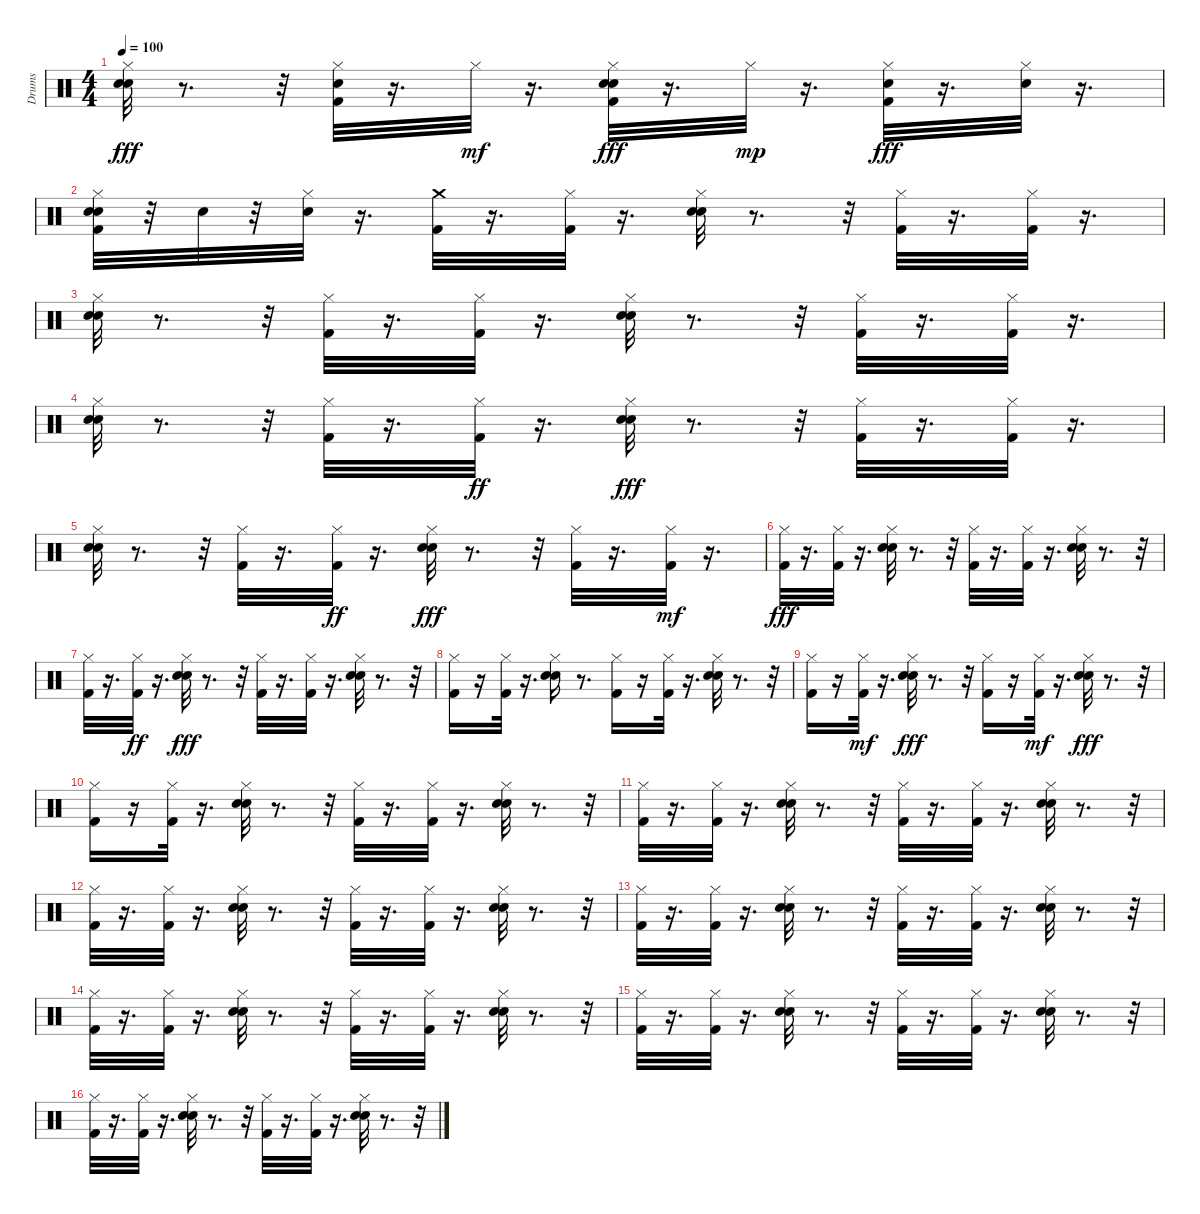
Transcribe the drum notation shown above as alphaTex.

\track ("Drums" "Drums") {instrument percussion}
\staff {score}
\articulation defaults
\ts (4 4)
\tempo 100
\clef neutral
\ks c
("Snare (hit) 2" "Hi-Hat (closed)" "Hand Clap (hit)").32{dy fff} r.8{d} r.32 ("Hi-Hat (closed)" "Snare (hit) 2" "Kick (hit) 2").32 r.16{d} "Hi-Hat (closed)".32{dy mf} r.16{d} ("Hi-Hat (closed)" "Hand Clap (hit)" "Kick (hit) 2" "Snare (hit) 2").32{dy fff} r.16{d} "Hi-Hat (closed)".32{dy mp} r.16{d} ("Hi-Hat (closed)" "Snare (hit) 2" "Kick (hit) 2").32{dy fff} r.16{d} ("Snare (hit) 2" "Hi-Hat (closed)").32 r.16{d} |
("Hand Clap (hit)" "Kick (hit) 2" "Hi-Hat (closed)" "Snare (hit) 2").32 r.32 "Snare (hit) 2".32 r.32 ("Snare (hit) 2" "Hi-Hat (closed)").32 r.16{d} ("Crash medium (hit)" "Kick (hit) 2").32 r.16{d} ("Hi-Hat (closed)" "Kick (hit) 2").32 r.16{d} ("Hand Clap (hit)" "Hi-Hat (closed)" "Snare (hit) 2").32 r.8{d} r.32 ("Kick (hit) 2" "Hi-Hat (closed)").32 r.16{d} ("Kick (hit) 2" "Hi-Hat (closed)").32 r.16{d} |
("Hi-Hat (closed)" "Hand Clap (hit)" "Snare (hit) 2").32 r.8{d} r.32 ("Hi-Hat (closed)" "Kick (hit) 2").32 r.16{d} ("Kick (hit) 2" "Hi-Hat (closed)").32 r.16{d} ("Snare (hit) 2" "Hi-Hat (closed)" "Hand Clap (hit)").32 r.8{d} r.32 ("Hi-Hat (closed)" "Kick (hit) 2").32 r.16{d} ("Hi-Hat (closed)" "Kick (hit) 2").32 r.16{d} |
("Snare (hit) 2" "Hand Clap (hit)" "Hi-Hat (closed)").32 r.8{d} r.32 ("Hi-Hat (closed)" "Kick (hit) 2").32 r.16{d} ("Kick (hit) 2" "Hi-Hat (closed)").32{dy ff} r.16{d} ("Snare (hit) 2" "Hi-Hat (closed)" "Hand Clap (hit)").32{dy fff} r.8{d} r.32 ("Kick (hit) 2" "Hi-Hat (closed)").32 r.16{d} ("Hi-Hat (closed)" "Kick (hit) 2").32 r.16{d} |
("Hi-Hat (closed)" "Snare (hit) 2" "Hand Clap (hit)").32 r.8{d} r.32 ("Hi-Hat (closed)" "Kick (hit) 2").32 r.16{d} ("Kick (hit) 2" "Hi-Hat (closed)").32{dy ff} r.16{d} ("Hi-Hat (closed)" "Hand Clap (hit)" "Snare (hit) 2").32{dy fff} r.8{d} r.32 ("Hi-Hat (closed)" "Kick (hit) 2").32 r.16{d} ("Kick (hit) 2" "Hi-Hat (closed)").32{dy mf} r.16{d} |
("Hi-Hat (closed)" "Kick (hit) 2").32{dy fff} r.16{d} ("Hi-Hat (closed)" "Kick (hit) 2").32 r.16{d} ("Snare (hit) 2" "Hand Clap (hit)" "Hi-Hat (closed)").32 r.8{d} r.32 ("Kick (hit) 2" "Hi-Hat (closed)").32 r.16{d} ("Hi-Hat (closed)" "Kick (hit) 2").32 r.16{d} ("Hi-Hat (closed)" "Snare (hit) 2" "Hand Clap (hit)").32 r.8{d} r.32 |
("Kick (hit) 2" "Hi-Hat (closed)").32 r.16{d} ("Kick (hit) 2" "Hi-Hat (closed)").32{dy ff} r.16{d} ("Hi-Hat (closed)" "Snare (hit) 2" "Hand Clap (hit)").32{dy fff} r.8{d} r.32 ("Kick (hit) 2" "Hi-Hat (closed)").32 r.16{d} ("Kick (hit) 2" "Hi-Hat (closed)").32 r.16{d} ("Hand Clap (hit)" "Snare (hit) 2" "Hi-Hat (closed)").32 r.8{d} r.32 |
("Kick (hit) 2" "Hi-Hat (closed)").16 r.16 ("Hi-Hat (closed)" "Kick (hit) 2").32 r.16{d} ("Hi-Hat (closed)" "Hand Clap (hit)" "Snare (hit) 2").16 r.8{d} ("Hi-Hat (closed)" "Kick (hit) 2").16 r.16 ("Hi-Hat (closed)" "Kick (hit) 2").32 r.16{d} ("Snare (hit) 2" "Hand Clap (hit)" "Hi-Hat (closed)").32 r.8{d} r.32 |
("Kick (hit) 2" "Hi-Hat (closed)").16 r.16 ("Kick (hit) 2" "Hi-Hat (closed)").32{dy mf} r.16{d} ("Snare (hit) 2" "Hand Clap (hit)" "Hi-Hat (closed)").32{dy fff} r.8{d} r.32 ("Hi-Hat (closed)" "Kick (hit) 2").16 r.16 ("Kick (hit) 2" "Hi-Hat (closed)").32{dy mf} r.16{d} ("Hi-Hat (closed)" "Snare (hit) 2" "Hand Clap (hit)").32{dy fff} r.8{d} r.32 |
("Hi-Hat (closed)" "Kick (hit) 2").16 r.16 ("Hi-Hat (closed)" "Kick (hit) 2").32 r.16{d} ("Hand Clap (hit)" "Hi-Hat (closed)" "Snare (hit) 2").32 r.8{d} r.32 ("Hi-Hat (closed)" "Kick (hit) 2").32 r.16{d} ("Hi-Hat (closed)" "Kick (hit) 2").32 r.16{d} ("Hand Clap (hit)" "Snare (hit) 2" "Hi-Hat (closed)").32 r.8{d} r.32 |
("Hi-Hat (closed)" "Kick (hit) 2").32 r.16{d} ("Hi-Hat (closed)" "Kick (hit) 2").32 r.16{d} ("Hand Clap (hit)" "Snare (hit) 2" "Hi-Hat (closed)").32 r.8{d} r.32 ("Hi-Hat (closed)" "Kick (hit) 2").32 r.16{d} ("Hi-Hat (closed)" "Kick (hit) 2").32 r.16{d} ("Hand Clap (hit)" "Snare (hit) 2" "Hi-Hat (closed)").32 r.8{d} r.32 |
("Kick (hit) 2" "Hi-Hat (closed)").32 r.16{d} ("Hi-Hat (closed)" "Kick (hit) 2").32 r.16{d} ("Hand Clap (hit)" "Hi-Hat (closed)" "Snare (hit) 2").32 r.8{d} r.32 ("Hi-Hat (closed)" "Kick (hit) 2").32 r.16{d} ("Hi-Hat (closed)" "Kick (hit) 2").32 r.16{d} ("Hand Clap (hit)" "Hi-Hat (closed)" "Snare (hit) 2").32 r.8{d} r.32 |
("Hi-Hat (closed)" "Kick (hit) 2").32 r.16{d} ("Kick (hit) 2" "Hi-Hat (closed)").32 r.16{d} ("Hand Clap (hit)" "Snare (hit) 2" "Hi-Hat (closed)").32 r.8{d} r.32 ("Kick (hit) 2" "Hi-Hat (closed)").32 r.16{d} ("Kick (hit) 2" "Hi-Hat (closed)").32 r.16{d} ("Hi-Hat (closed)" "Hand Clap (hit)" "Snare (hit) 2").32 r.8{d} r.32 |
("Kick (hit) 2" "Hi-Hat (closed)").32 r.16{d} ("Kick (hit) 2" "Hi-Hat (closed)").32 r.16{d} ("Snare (hit) 2" "Hand Clap (hit)" "Hi-Hat (closed)").32 r.8{d} r.32 ("Kick (hit) 2" "Hi-Hat (closed)").32 r.16{d} ("Hi-Hat (closed)" "Kick (hit) 2").32 r.16{d} ("Hand Clap (hit)" "Snare (hit) 2" "Hi-Hat (closed)").32 r.8{d} r.32 |
("Hi-Hat (closed)" "Kick (hit) 2").32 r.16{d} ("Hi-Hat (closed)" "Kick (hit) 2").32 r.16{d} ("Snare (hit) 2" "Hand Clap (hit)" "Hi-Hat (closed)").32 r.8{d} r.32 ("Hi-Hat (closed)" "Kick (hit) 2").32 r.16{d} ("Hi-Hat (closed)" "Kick (hit) 2").32 r.16{d} ("Hand Clap (hit)" "Snare (hit) 2" "Hi-Hat (closed)").32 r.8{d} r.32 |
("Hi-Hat (closed)" "Kick (hit) 2").32 r.16{d} ("Kick (hit) 2" "Hi-Hat (closed)").32 r.16{d} ("Hand Clap (hit)" "Hi-Hat (closed)" "Snare (hit) 2").32 r.8{d} r.32 ("Hi-Hat (closed)" "Kick (hit) 2").32 r.16{d} ("Hi-Hat (closed)" "Kick (hit) 2").32 r.16{d} ("Snare (hit) 2" "Hand Clap (hit)" "Hi-Hat (closed)").32 r.8{d} r.32
